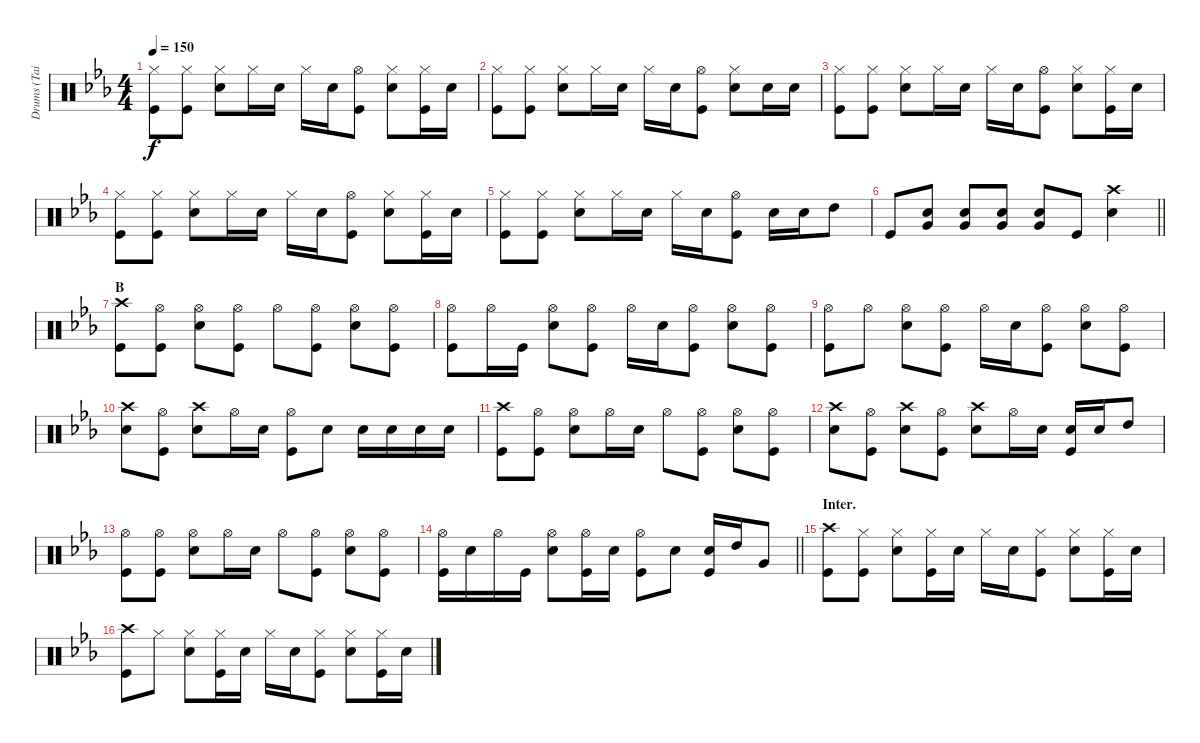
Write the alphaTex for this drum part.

\track ("Drums (Tainaka Ritsu)" "Drums (Tai") {instrument percussion}
\staff {score}
\articulation defaults
\ts (4 4)
\tempo 150
\clef neutral
\ks eb
("Hi-Hat (closed)" "Kick (hit)").8{dy f} ("Hi-Hat (closed)" "Kick (hit)").8 ("Hi-Hat (closed)" "Snare (hit) 2").8 "Hi-Hat (closed)".16 "Snare (hit) 2".16 "Hi-Hat (closed)".16 "Snare (hit) 2".16 ("Hi-Hat (open)" "Kick (hit)").8 ("Hi-Hat (closed)" "Snare (hit) 2").8 ("Hi-Hat (closed)" "Kick (hit)").16 "Snare (hit) 2".16 |
("Hi-Hat (closed)" "Kick (hit)").8 ("Hi-Hat (closed)" "Kick (hit)").8 ("Hi-Hat (closed)" "Snare (hit) 2").8 "Hi-Hat (closed)".16 "Snare (hit) 2".16 "Hi-Hat (closed)".16 "Snare (hit) 2".16 ("Hi-Hat (open)" "Kick (hit)").8 ("Hi-Hat (closed)" "Snare (hit) 2").8 "Snare (hit) 2".16 "Snare (hit) 2".16 |
("Hi-Hat (closed)" "Kick (hit)").8 ("Hi-Hat (closed)" "Kick (hit)").8 ("Hi-Hat (closed)" "Snare (hit) 2").8 "Hi-Hat (closed)".16 "Snare (hit) 2".16 "Hi-Hat (closed)".16 "Snare (hit) 2".16 ("Hi-Hat (open)" "Kick (hit)").8 ("Hi-Hat (closed)" "Snare (hit) 2").8 ("Hi-Hat (closed)" "Kick (hit)").16 "Snare (hit) 2".16 |
("Hi-Hat (closed)" "Kick (hit)").8 ("Hi-Hat (closed)" "Kick (hit)").8 ("Hi-Hat (closed)" "Snare (hit) 2").8 "Hi-Hat (closed)".16 "Snare (hit) 2".16 "Hi-Hat (closed)".16 "Snare (hit) 2".16 ("Hi-Hat (open)" "Kick (hit)").8 ("Hi-Hat (closed)" "Snare (hit) 2").8 ("Hi-Hat (closed)" "Kick (hit)").16 "Snare (hit) 2".16 |
("Hi-Hat (closed)" "Kick (hit)").8 ("Hi-Hat (closed)" "Kick (hit)").8 ("Hi-Hat (closed)" "Snare (hit) 2").8 "Hi-Hat (closed)".16 "Snare (hit) 2".16 "Hi-Hat (closed)".16 "Snare (hit) 2".16 ("Hi-Hat (open)" "Kick (hit)").8 "Snare (hit) 2".16 "Snare (hit) 2".16 "High Tom (hit)".8 |
\barLineRight lightlight "Kick (hit)".8
("Snare (hit) 2" "Very Low Tom (hit)").8 ("Snare (hit) 2" "Very Low Tom (hit)").8 ("Snare (hit) 2" "Very Low Tom (hit)").8 ("Snare (hit) 2" "Very Low Tom (hit)").8 "Kick (hit)".8 ("Crash high (hit)" "Snare (hit) 2").4 |
\section ("" "B")
("Crash high (hit)" "Kick (hit)").8 ("Hi-Hat (open)" "Kick (hit)").8 ("Hi-Hat (open)" "Snare (hit) 2").8 ("Hi-Hat (open)" "Kick (hit)").8 "Hi-Hat (open)".8 ("Hi-Hat (open)" "Kick (hit)").8 ("Hi-Hat (open)" "Snare (hit) 2").8 ("Hi-Hat (open)" "Kick (hit)").8 |
("Hi-Hat (open)" "Kick (hit)").8 "Hi-Hat (open)".16 "Kick (hit)".16 ("Hi-Hat (open)" "Snare (hit) 2").8 ("Hi-Hat (open)" "Kick (hit)").8 "Hi-Hat (open)".16 "Snare (hit) 2".16 ("Hi-Hat (open)" "Kick (hit)").8 ("Hi-Hat (open)" "Snare (hit) 2").8 ("Hi-Hat (open)" "Kick (hit)").8 |
("Hi-Hat (open)" "Kick (hit)").8 "Hi-Hat (open)".8 ("Hi-Hat (open)" "Snare (hit) 2").8 ("Hi-Hat (open)" "Kick (hit)").8 "Hi-Hat (open)".16 "Snare (hit) 2".16 ("Hi-Hat (open)" "Kick (hit)").8 ("Hi-Hat (open)" "Snare (hit) 2").8 ("Hi-Hat (open)" "Kick (hit)").8 |
("Crash high (hit)" "Snare (hit) 2").8 ("Hi-Hat (open)" "Kick (hit)").8 ("Crash high (hit)" "Snare (hit) 2").8 "Hi-Hat (open)".16 "Snare (hit) 2".16 ("Hi-Hat (open)" "Kick (hit)").8 "Snare (hit) 2".8 "Snare (hit) 2".16 "Snare (hit) 2".16 "Snare (hit) 2".16 "Snare (hit) 2".16 |
("Crash high (hit)" "Kick (hit)").8 ("Hi-Hat (open)" "Kick (hit)").8 ("Hi-Hat (open)" "Snare (hit) 2").8 "Hi-Hat (open)".16 "Snare (hit) 2".16 "Hi-Hat (open)".8 ("Hi-Hat (open)" "Kick (hit)").8 ("Hi-Hat (open)" "Snare (hit) 2").8 ("Hi-Hat (open)" "Kick (hit)").8 |
("Crash high (hit)" "Snare (hit) 2").8 ("Hi-Hat (open)" "Kick (hit)").8 ("Crash high (hit)" "Snare (hit) 2").8 ("Hi-Hat (open)" "Kick (hit)").8 ("Crash high (hit)" "Snare (hit) 2").8 "Hi-Hat (open)".16 "Snare (hit) 2".16 ("Snare (hit) 2" "Kick (hit)").16 "Snare (hit) 2".16 "High Tom (hit)".8 |
("Hi-Hat (open)" "Kick (hit)").8 ("Hi-Hat (open)" "Kick (hit)").8 ("Hi-Hat (open)" "Snare (hit) 2").8 "Hi-Hat (open)".16 "Snare (hit) 2".16 "Hi-Hat (open)".8 ("Hi-Hat (open)" "Kick (hit)").8 ("Hi-Hat (open)" "Snare (hit) 2").8 ("Hi-Hat (open)" "Kick (hit)").8 |
\barLineRight lightlight
("Hi-Hat (open)" "Kick (hit)").16 "Snare (hit) 2".16 "Hi-Hat (open)".16 "Kick (hit)".16 ("Hi-Hat (open)" "Snare (hit) 2").8 ("Hi-Hat (open)" "Kick (hit)").16 "Snare (hit) 2".16 ("Hi-Hat (open)" "Kick (hit)").8 "Snare (hit) 2".8 ("Snare (hit) 2" "Kick (hit)").16 "High Tom (hit)".16 "Very Low Tom (hit)".8 |
\section ("" "Inter.")
("Crash high (hit)" "Kick (hit)").8 ("Hi-Hat (closed)" "Kick (hit)").8 ("Hi-Hat (closed)" "Snare (hit) 2").8 ("Hi-Hat (closed)" "Kick (hit)").16 "Snare (hit) 2".16 "Hi-Hat (closed)".16 "Snare (hit) 2".16 ("Hi-Hat (closed)" "Kick (hit)").8 ("Hi-Hat (closed)" "Snare (hit) 2").8 ("Hi-Hat (closed)" "Kick (hit)").16 "Snare (hit) 2".16 |
("Crash high (hit)" "Kick (hit)").8 "Hi-Hat (closed)".8 ("Hi-Hat (closed)" "Snare (hit) 2").8 ("Hi-Hat (closed)" "Kick (hit)").16 "Snare (hit) 2".16 "Hi-Hat (closed)".16 "Snare (hit) 2".16 ("Hi-Hat (closed)" "Kick (hit)").8 ("Hi-Hat (closed)" "Snare (hit) 2").8 ("Hi-Hat (closed)" "Kick (hit)").16 "Snare (hit) 2".16
